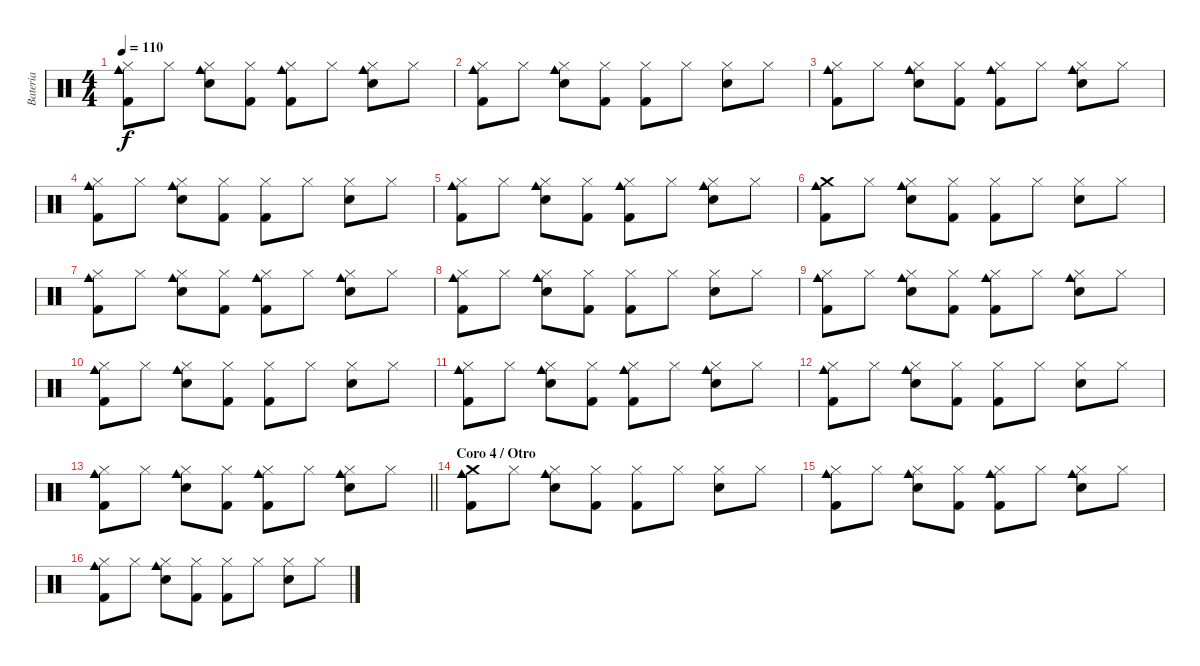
\track ("Bateria" "Bateria") {instrument percussion}
\staff {score}
\articulation defaults
\ts (4 4)
\tempo 110
\clef neutral
\ks c
("Hi-Hat (closed)" "Cowbell medium (hit)" "Kick (hit) 2").8{dy f} "Hi-Hat (closed)".8 ("Hi-Hat (closed)" "Electric Snare (hit)" "Cowbell medium (hit)").8 ("Hi-Hat (closed)" "Kick (hit) 2").8 ("Hi-Hat (closed)" "Cowbell medium (hit)" "Kick (hit) 2").8 "Hi-Hat (closed)".8 ("Hi-Hat (closed)" "Electric Snare (hit)" "Cowbell medium (hit)").8 "Hi-Hat (closed)".8 |
("Hi-Hat (closed)" "Cowbell medium (hit)" "Kick (hit) 2").8 "Hi-Hat (closed)".8 ("Hi-Hat (closed)" "Electric Snare (hit)" "Cowbell medium (hit)").8 ("Hi-Hat (closed)" "Kick (hit) 2").8 ("Hi-Hat (closed)" "Kick (hit) 2").8 "Hi-Hat (closed)".8 ("Hi-Hat (closed)" "Electric Snare (hit)").8 "Hi-Hat (closed)".8 |
("Hi-Hat (closed)" "Cowbell medium (hit)" "Kick (hit) 2").8 "Hi-Hat (closed)".8 ("Hi-Hat (closed)" "Electric Snare (hit)" "Cowbell medium (hit)").8 ("Hi-Hat (closed)" "Kick (hit) 2").8 ("Hi-Hat (closed)" "Cowbell medium (hit)" "Kick (hit) 2").8 "Hi-Hat (closed)".8 ("Hi-Hat (closed)" "Electric Snare (hit)" "Cowbell medium (hit)").8 "Hi-Hat (closed)".8 |
("Hi-Hat (closed)" "Cowbell medium (hit)" "Kick (hit) 2").8 "Hi-Hat (closed)".8 ("Hi-Hat (closed)" "Electric Snare (hit)" "Cowbell medium (hit)").8 ("Hi-Hat (closed)" "Kick (hit) 2").8 ("Hi-Hat (closed)" "Kick (hit) 2").8 "Hi-Hat (closed)".8 ("Hi-Hat (closed)" "Electric Snare (hit)").8 "Hi-Hat (closed)".8 |
("Hi-Hat (closed)" "Cowbell medium (hit)" "Kick (hit) 2").8 "Hi-Hat (closed)".8 ("Hi-Hat (closed)" "Electric Snare (hit)" "Cowbell medium (hit)").8 ("Hi-Hat (closed)" "Kick (hit) 2").8 ("Hi-Hat (closed)" "Cowbell medium (hit)" "Kick (hit) 2").8 "Hi-Hat (closed)".8 ("Hi-Hat (closed)" "Electric Snare (hit)" "Cowbell medium (hit)").8 "Hi-Hat (closed)".8 |
("Crash medium (hit)" "Cowbell medium (hit)" "Kick (hit) 2").8 "Hi-Hat (closed)".8 ("Hi-Hat (closed)" "Electric Snare (hit)" "Cowbell medium (hit)").8 ("Hi-Hat (closed)" "Kick (hit) 2").8 ("Hi-Hat (closed)" "Kick (hit) 2").8 "Hi-Hat (closed)".8 ("Hi-Hat (closed)" "Electric Snare (hit)").8 "Hi-Hat (closed)".8 |
("Hi-Hat (closed)" "Cowbell medium (hit)" "Kick (hit) 2").8 "Hi-Hat (closed)".8 ("Hi-Hat (closed)" "Electric Snare (hit)" "Cowbell medium (hit)").8 ("Hi-Hat (closed)" "Kick (hit) 2").8 ("Hi-Hat (closed)" "Cowbell medium (hit)" "Kick (hit) 2").8 "Hi-Hat (closed)".8 ("Hi-Hat (closed)" "Electric Snare (hit)" "Cowbell medium (hit)").8 "Hi-Hat (closed)".8 |
("Hi-Hat (closed)" "Cowbell medium (hit)" "Kick (hit) 2").8 "Hi-Hat (closed)".8 ("Hi-Hat (closed)" "Electric Snare (hit)" "Cowbell medium (hit)").8 ("Hi-Hat (closed)" "Kick (hit) 2").8 ("Hi-Hat (closed)" "Kick (hit) 2").8 "Hi-Hat (closed)".8 ("Hi-Hat (closed)" "Electric Snare (hit)").8 "Hi-Hat (closed)".8 |
("Hi-Hat (closed)" "Cowbell medium (hit)" "Kick (hit) 2").8 "Hi-Hat (closed)".8 ("Hi-Hat (closed)" "Electric Snare (hit)" "Cowbell medium (hit)").8 ("Hi-Hat (closed)" "Kick (hit) 2").8 ("Hi-Hat (closed)" "Cowbell medium (hit)" "Kick (hit) 2").8 "Hi-Hat (closed)".8 ("Hi-Hat (closed)" "Electric Snare (hit)" "Cowbell medium (hit)").8 "Hi-Hat (closed)".8 |
("Hi-Hat (closed)" "Cowbell medium (hit)" "Kick (hit) 2").8 "Hi-Hat (closed)".8 ("Hi-Hat (closed)" "Electric Snare (hit)" "Cowbell medium (hit)").8 ("Hi-Hat (closed)" "Kick (hit) 2").8 ("Hi-Hat (closed)" "Kick (hit) 2").8 "Hi-Hat (closed)".8 ("Hi-Hat (closed)" "Electric Snare (hit)").8 "Hi-Hat (closed)".8 |
("Hi-Hat (closed)" "Cowbell medium (hit)" "Kick (hit) 2").8 "Hi-Hat (closed)".8 ("Hi-Hat (closed)" "Electric Snare (hit)" "Cowbell medium (hit)").8 ("Hi-Hat (closed)" "Kick (hit) 2").8 ("Hi-Hat (closed)" "Cowbell medium (hit)" "Kick (hit) 2").8 "Hi-Hat (closed)".8 ("Hi-Hat (closed)" "Electric Snare (hit)" "Cowbell medium (hit)").8 "Hi-Hat (closed)".8 |
("Hi-Hat (closed)" "Cowbell medium (hit)" "Kick (hit) 2").8 "Hi-Hat (closed)".8 ("Hi-Hat (closed)" "Electric Snare (hit)" "Cowbell medium (hit)").8 ("Hi-Hat (closed)" "Kick (hit) 2").8 ("Hi-Hat (closed)" "Kick (hit) 2").8 "Hi-Hat (closed)".8 ("Hi-Hat (closed)" "Electric Snare (hit)").8 "Hi-Hat (closed)".8 |
\barLineRight lightlight
("Hi-Hat (closed)" "Cowbell medium (hit)" "Kick (hit) 2").8 "Hi-Hat (closed)".8 ("Hi-Hat (closed)" "Electric Snare (hit)" "Cowbell medium (hit)").8 ("Hi-Hat (closed)" "Kick (hit) 2").8 ("Hi-Hat (closed)" "Cowbell medium (hit)" "Kick (hit) 2").8 "Hi-Hat (closed)".8 ("Hi-Hat (closed)" "Electric Snare (hit)" "Cowbell medium (hit)").8 "Hi-Hat (closed)".8 |
\section ("" "Coro 4 / Otro")
("Crash medium (hit)" "Cowbell medium (hit)" "Kick (hit) 2").8 "Hi-Hat (closed)".8 ("Hi-Hat (closed)" "Electric Snare (hit)" "Cowbell medium (hit)").8 ("Hi-Hat (closed)" "Kick (hit) 2").8 ("Hi-Hat (closed)" "Kick (hit) 2").8 "Hi-Hat (closed)".8 ("Hi-Hat (closed)" "Electric Snare (hit)").8 "Hi-Hat (closed)".8 |
("Hi-Hat (closed)" "Cowbell medium (hit)" "Kick (hit) 2").8 "Hi-Hat (closed)".8 ("Hi-Hat (closed)" "Electric Snare (hit)" "Cowbell medium (hit)").8 ("Hi-Hat (closed)" "Kick (hit) 2").8 ("Hi-Hat (closed)" "Cowbell medium (hit)" "Kick (hit) 2").8 "Hi-Hat (closed)".8 ("Hi-Hat (closed)" "Electric Snare (hit)" "Cowbell medium (hit)").8 "Hi-Hat (closed)".8 |
("Hi-Hat (closed)" "Cowbell medium (hit)" "Kick (hit) 2").8 "Hi-Hat (closed)".8 ("Hi-Hat (closed)" "Electric Snare (hit)" "Cowbell medium (hit)").8 ("Hi-Hat (closed)" "Kick (hit) 2").8 ("Hi-Hat (closed)" "Kick (hit) 2").8 "Hi-Hat (closed)".8 ("Hi-Hat (closed)" "Electric Snare (hit)").8 "Hi-Hat (closed)".8
